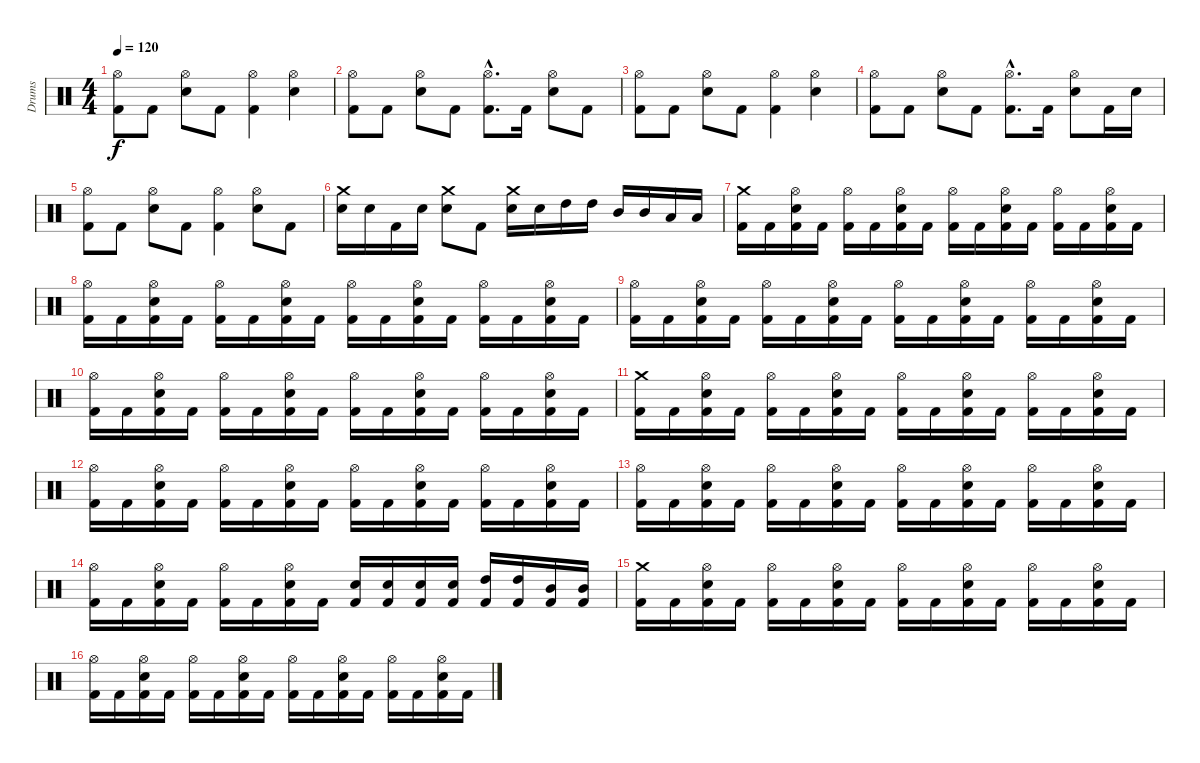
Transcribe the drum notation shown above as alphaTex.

\track ("Drums" "Drums") {instrument percussion}
\staff {score}
\articulation defaults
\ts (4 4)
\tempo 120
\clef neutral
\ks c
("Kick (hit) 2" "Hi-Hat (open)").8{dy f} "Kick (hit) 2".8 ("Electric Snare (hit)" "Hi-Hat (open)").8 "Kick (hit) 2".8 ("Kick (hit) 2" "Hi-Hat (open)").4 ("Electric Snare (hit)" "Hi-Hat (open)").4 |
("Kick (hit) 2" "Hi-Hat (open)").8 "Kick (hit) 2".8 ("Electric Snare (hit)" "Hi-Hat (open)").8 "Kick (hit) 2".8 ("Kick (hit) 2"{hac} "Hi-Hat (open)"{hac}).8{d} "Kick (hit) 2".16 ("Electric Snare (hit)" "Hi-Hat (open)").8 "Kick (hit) 2".8 |
("Kick (hit) 2" "Hi-Hat (open)").8 "Kick (hit) 2".8 ("Electric Snare (hit)" "Hi-Hat (open)").8 "Kick (hit) 2".8 ("Kick (hit) 2" "Hi-Hat (open)").4 ("Electric Snare (hit)" "Hi-Hat (open)").4 |
("Kick (hit) 2" "Hi-Hat (open)").8 "Kick (hit) 2".8 ("Electric Snare (hit)" "Hi-Hat (open)").8 "Kick (hit) 2".8 ("Kick (hit) 2"{hac} "Hi-Hat (open)"{hac}).8{d} "Kick (hit) 2".16 ("Electric Snare (hit)" "Hi-Hat (open)").8 "Kick (hit) 2".16 "Electric Snare (hit)".16 |
("Kick (hit) 2" "Hi-Hat (open)").8 "Kick (hit) 2".8 ("Electric Snare (hit)" "Hi-Hat (open)").8 "Kick (hit) 2".8 ("Kick (hit) 2" "Hi-Hat (open)").4 ("Electric Snare (hit)" "Hi-Hat (open)").8 "Kick (hit) 2".8 |
("Electric Snare (hit)" "Crash medium (hit)").16 "Electric Snare (hit)".16 "Kick (hit) 2".16 "Electric Snare (hit)".16 ("Electric Snare (hit)" "Crash medium (hit)").8 "Kick (hit) 2".8 ("Electric Snare (hit)" "Crash medium (hit)").16 "Electric Snare (hit)".16 "High Tom (hit)".16 "High Tom (hit)".16 "Mid Tom (hit)".16 "Mid Tom (hit)".16 "Low Tom (hit)".16 "Low Tom (hit)".16 |
("Kick (hit) 2" "Crash medium (hit)").16 "Kick (hit) 2".16 ("Kick (hit) 2" "Electric Snare (hit)" "Hi-Hat (open)").16 "Kick (hit) 2".16 ("Kick (hit) 2" "Hi-Hat (open)").16 "Kick (hit) 2".16 ("Kick (hit) 2" "Electric Snare (hit)" "Hi-Hat (open)").16 "Kick (hit) 2".16 ("Kick (hit) 2" "Hi-Hat (open)").16 "Kick (hit) 2".16 ("Kick (hit) 2" "Electric Snare (hit)" "Hi-Hat (open)").16 "Kick (hit) 2".16 ("Kick (hit) 2" "Hi-Hat (open)").16 "Kick (hit) 2".16 ("Kick (hit) 2" "Electric Snare (hit)" "Hi-Hat (open)").16 "Kick (hit) 2".16 |
("Kick (hit) 2" "Hi-Hat (open)").16 "Kick (hit) 2".16 ("Kick (hit) 2" "Electric Snare (hit)" "Hi-Hat (open)").16 "Kick (hit) 2".16 ("Kick (hit) 2" "Hi-Hat (open)").16 "Kick (hit) 2".16 ("Kick (hit) 2" "Electric Snare (hit)" "Hi-Hat (open)").16 "Kick (hit) 2".16 ("Kick (hit) 2" "Hi-Hat (open)").16 "Kick (hit) 2".16 ("Kick (hit) 2" "Electric Snare (hit)" "Hi-Hat (open)").16 "Kick (hit) 2".16 ("Kick (hit) 2" "Hi-Hat (open)").16 "Kick (hit) 2".16 ("Kick (hit) 2" "Electric Snare (hit)" "Hi-Hat (open)").16 "Kick (hit) 2".16 |
("Kick (hit) 2" "Hi-Hat (open)").16 "Kick (hit) 2".16 ("Kick (hit) 2" "Electric Snare (hit)" "Hi-Hat (open)").16 "Kick (hit) 2".16 ("Kick (hit) 2" "Hi-Hat (open)").16 "Kick (hit) 2".16 ("Kick (hit) 2" "Electric Snare (hit)" "Hi-Hat (open)").16 "Kick (hit) 2".16 ("Kick (hit) 2" "Hi-Hat (open)").16 "Kick (hit) 2".16 ("Kick (hit) 2" "Electric Snare (hit)" "Hi-Hat (open)").16 "Kick (hit) 2".16 ("Kick (hit) 2" "Hi-Hat (open)").16 "Kick (hit) 2".16 ("Kick (hit) 2" "Electric Snare (hit)" "Hi-Hat (open)").16 "Kick (hit) 2".16 |
("Kick (hit) 2" "Hi-Hat (open)").16 "Kick (hit) 2".16 ("Kick (hit) 2" "Electric Snare (hit)" "Hi-Hat (open)").16 "Kick (hit) 2".16 ("Kick (hit) 2" "Hi-Hat (open)").16 "Kick (hit) 2".16 ("Kick (hit) 2" "Electric Snare (hit)" "Hi-Hat (open)").16 "Kick (hit) 2".16 ("Kick (hit) 2" "Hi-Hat (open)").16 "Kick (hit) 2".16 ("Kick (hit) 2" "Electric Snare (hit)" "Hi-Hat (open)").16 "Kick (hit) 2".16 ("Kick (hit) 2" "Hi-Hat (open)").16 "Kick (hit) 2".16 ("Kick (hit) 2" "Electric Snare (hit)" "Hi-Hat (open)").16 "Kick (hit) 2".16 |
("Kick (hit) 2" "Crash medium (hit)").16 "Kick (hit) 2".16 ("Kick (hit) 2" "Electric Snare (hit)" "Hi-Hat (open)").16 "Kick (hit) 2".16 ("Kick (hit) 2" "Hi-Hat (open)").16 "Kick (hit) 2".16 ("Kick (hit) 2" "Electric Snare (hit)" "Hi-Hat (open)").16 "Kick (hit) 2".16 ("Kick (hit) 2" "Hi-Hat (open)").16 "Kick (hit) 2".16 ("Kick (hit) 2" "Electric Snare (hit)" "Hi-Hat (open)").16 "Kick (hit) 2".16 ("Kick (hit) 2" "Hi-Hat (open)").16 "Kick (hit) 2".16 ("Kick (hit) 2" "Electric Snare (hit)" "Hi-Hat (open)").16 "Kick (hit) 2".16 |
("Kick (hit) 2" "Hi-Hat (open)").16 "Kick (hit) 2".16 ("Kick (hit) 2" "Electric Snare (hit)" "Hi-Hat (open)").16 "Kick (hit) 2".16 ("Kick (hit) 2" "Hi-Hat (open)").16 "Kick (hit) 2".16 ("Kick (hit) 2" "Electric Snare (hit)" "Hi-Hat (open)").16 "Kick (hit) 2".16 ("Kick (hit) 2" "Hi-Hat (open)").16 "Kick (hit) 2".16 ("Kick (hit) 2" "Electric Snare (hit)" "Hi-Hat (open)").16 "Kick (hit) 2".16 ("Kick (hit) 2" "Hi-Hat (open)").16 "Kick (hit) 2".16 ("Kick (hit) 2" "Electric Snare (hit)" "Hi-Hat (open)").16 "Kick (hit) 2".16 |
("Kick (hit) 2" "Hi-Hat (open)").16 "Kick (hit) 2".16 ("Kick (hit) 2" "Electric Snare (hit)" "Hi-Hat (open)").16 "Kick (hit) 2".16 ("Kick (hit) 2" "Hi-Hat (open)").16 "Kick (hit) 2".16 ("Kick (hit) 2" "Electric Snare (hit)" "Hi-Hat (open)").16 "Kick (hit) 2".16 ("Kick (hit) 2" "Hi-Hat (open)").16 "Kick (hit) 2".16 ("Kick (hit) 2" "Electric Snare (hit)" "Hi-Hat (open)").16 "Kick (hit) 2".16 ("Kick (hit) 2" "Hi-Hat (open)").16 "Kick (hit) 2".16 ("Kick (hit) 2" "Electric Snare (hit)" "Hi-Hat (open)").16 "Kick (hit) 2".16 |
("Kick (hit) 2" "Hi-Hat (open)").16 "Kick (hit) 2".16 ("Kick (hit) 2" "Electric Snare (hit)" "Hi-Hat (open)").16 "Kick (hit) 2".16 ("Kick (hit) 2" "Hi-Hat (open)").16 "Kick (hit) 2".16 ("Kick (hit) 2" "Electric Snare (hit)" "Hi-Hat (open)").16 "Kick (hit) 2".16 ("Kick (hit) 2" "Electric Snare (hit)").16 ("Kick (hit) 2" "Electric Snare (hit)").16 ("Kick (hit) 2" "Electric Snare (hit)").16 ("Kick (hit) 2" "Electric Snare (hit)").16 ("Kick (hit) 2" "High Tom (hit)").16 ("Kick (hit) 2" "High Tom (hit)").16 ("Kick (hit) 2" "Mid Tom (hit)").16 ("Kick (hit) 2" "Mid Tom (hit)").16 |
("Kick (hit) 2" "Crash medium (hit)").16 "Kick (hit) 2".16 ("Kick (hit) 2" "Electric Snare (hit)" "Hi-Hat (open)").16 "Kick (hit) 2".16 ("Kick (hit) 2" "Hi-Hat (open)").16 "Kick (hit) 2".16 ("Kick (hit) 2" "Electric Snare (hit)" "Hi-Hat (open)").16 "Kick (hit) 2".16 ("Kick (hit) 2" "Hi-Hat (open)").16 "Kick (hit) 2".16 ("Kick (hit) 2" "Electric Snare (hit)" "Hi-Hat (open)").16 "Kick (hit) 2".16 ("Kick (hit) 2" "Hi-Hat (open)").16 "Kick (hit) 2".16 ("Kick (hit) 2" "Electric Snare (hit)" "Hi-Hat (open)").16 "Kick (hit) 2".16 |
("Kick (hit) 2" "Hi-Hat (open)").16 "Kick (hit) 2".16 ("Kick (hit) 2" "Electric Snare (hit)" "Hi-Hat (open)").16 "Kick (hit) 2".16 ("Kick (hit) 2" "Hi-Hat (open)").16 "Kick (hit) 2".16 ("Kick (hit) 2" "Electric Snare (hit)" "Hi-Hat (open)").16 "Kick (hit) 2".16 ("Kick (hit) 2" "Hi-Hat (open)").16 "Kick (hit) 2".16 ("Kick (hit) 2" "Electric Snare (hit)" "Hi-Hat (open)").16 "Kick (hit) 2".16 ("Kick (hit) 2" "Hi-Hat (open)").16 "Kick (hit) 2".16 ("Kick (hit) 2" "Electric Snare (hit)" "Hi-Hat (open)").16 "Kick (hit) 2".16
